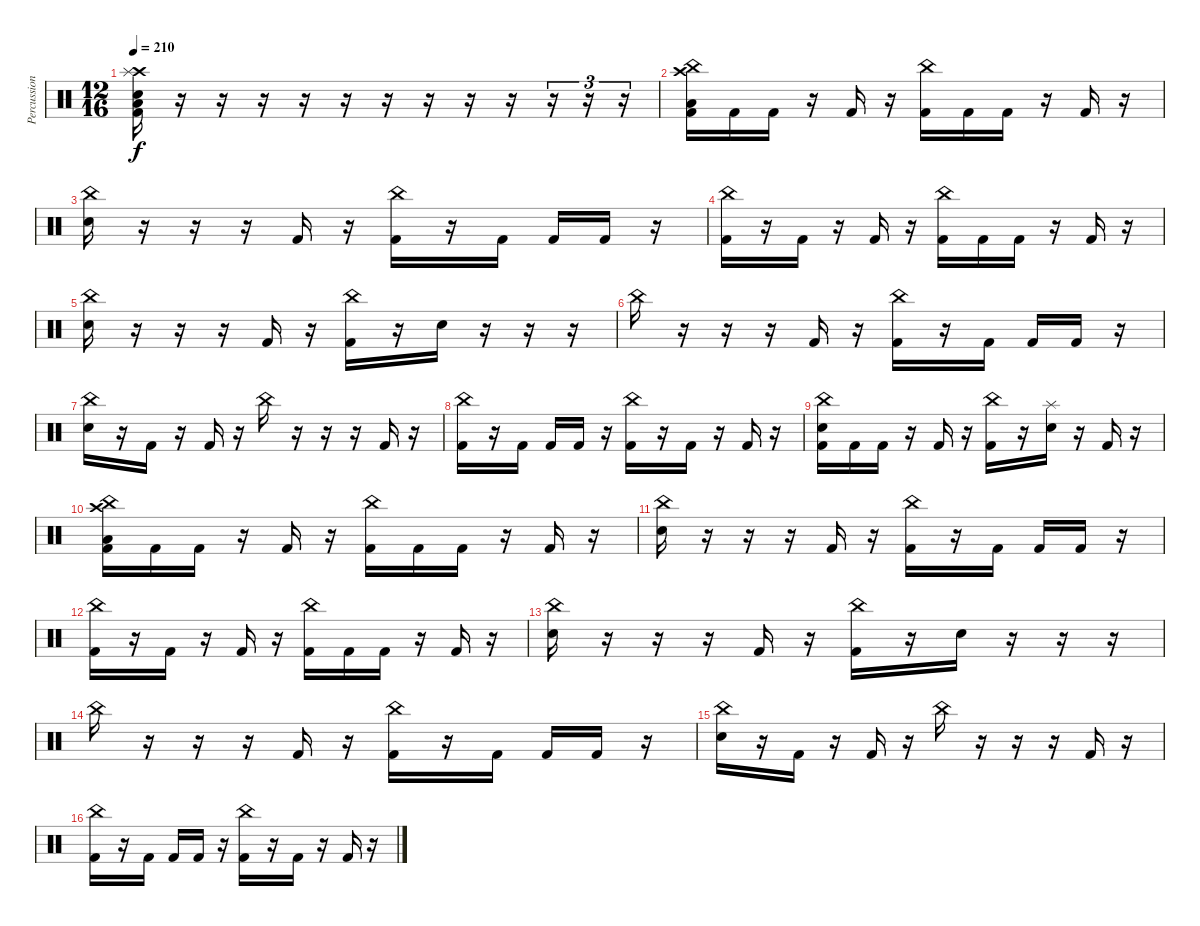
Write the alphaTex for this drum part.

\track ("Percussion" "Percussion") {instrument percussion}
\staff {score}
\articulation defaults
\ts (12 16)
\tempo 210
\clef neutral
\ks c
("Crash high (hit)" "Splash (hit)" "Electric Snare (hit)" "Low Floor Tom (hit)" "Kick (hit) 2").16{dy f} r.16 r.16 r.16 r.16 r.16 r.16 r.16 r.16 r.16 r.16{tu (3 2)} r.16{tu (3 2)} r.16{tu (3 2)} |
("Crash high (hit)" "China (hit)" "Low Floor Tom (hit)" "Kick (hit) 2").16 "Kick (hit) 2".16 "Kick (hit) 2".16 r.16 "Kick (hit) 2".16 r.16 ("China (hit)" "Kick (hit) 2").16 "Kick (hit) 2".16 "Kick (hit) 2".16 r.16 "Kick (hit) 2".16 r.16 |
("China (hit)" "Electric Snare (hit)").16 r.16 r.16 r.16 "Kick (hit) 2".16 r.16 ("China (hit)" "Kick (hit) 2").16 r.16 "Kick (hit) 2".16 "Kick (hit) 2".16 "Kick (hit) 2".16 r.16 |
("China (hit)" "Kick (hit) 2").16 r.16 "Kick (hit) 2".16 r.16 "Kick (hit) 2".16 r.16 ("China (hit)" "Kick (hit) 2").16 "Kick (hit) 2".16 "Kick (hit) 2".16 r.16 "Kick (hit) 2".16 r.16 |
("China (hit)" "Electric Snare (hit)").16 r.16 r.16 r.16 "Kick (hit) 2".16 r.16 ("China (hit)" "Kick (hit) 2").16 r.16 "Electric Snare (hit)".16 r.16 r.16 r.16 |
"China (hit)".16 r.16 r.16 r.16 "Kick (hit) 2".16 r.16 ("China (hit)" "Kick (hit) 2").16 r.16 "Kick (hit) 2".16 "Kick (hit) 2".16 "Kick (hit) 2".16 r.16 |
("China (hit)" "Electric Snare (hit)").16 r.16 "Kick (hit) 2".16 r.16 "Kick (hit) 2".16 r.16 "China (hit)".16 r.16 r.16 r.16 "Kick (hit) 2".16 r.16 |
("China (hit)" "Kick (hit) 2").16 r.16 "Kick (hit) 2".16 "Kick (hit) 2".16 "Kick (hit) 2".16 r.16 ("China (hit)" "Kick (hit) 2").16 r.16 "Kick (hit) 2".16 r.16 "Kick (hit) 2".16 r.16 |
("China (hit)" "Electric Snare (hit)" "Kick (hit) 2").16 "Kick (hit) 2".16 "Kick (hit) 2".16 r.16 "Kick (hit) 2".16 r.16 ("China (hit)" "Kick (hit) 2").16 r.16 ("Splash (hit)" "Electric Snare (hit)").16 r.16 "Kick (hit) 2".16 r.16 |
("Crash high (hit)" "China (hit)" "Low Floor Tom (hit)" "Kick (hit) 2").16 "Kick (hit) 2".16 "Kick (hit) 2".16 r.16 "Kick (hit) 2".16 r.16 ("China (hit)" "Kick (hit) 2").16 "Kick (hit) 2".16 "Kick (hit) 2".16 r.16 "Kick (hit) 2".16 r.16 |
("China (hit)" "Electric Snare (hit)").16 r.16 r.16 r.16 "Kick (hit) 2".16 r.16 ("China (hit)" "Kick (hit) 2").16 r.16 "Kick (hit) 2".16 "Kick (hit) 2".16 "Kick (hit) 2".16 r.16 |
("China (hit)" "Kick (hit) 2").16 r.16 "Kick (hit) 2".16 r.16 "Kick (hit) 2".16 r.16 ("China (hit)" "Kick (hit) 2").16 "Kick (hit) 2".16 "Kick (hit) 2".16 r.16 "Kick (hit) 2".16 r.16 |
("China (hit)" "Electric Snare (hit)").16 r.16 r.16 r.16 "Kick (hit) 2".16 r.16 ("China (hit)" "Kick (hit) 2").16 r.16 "Electric Snare (hit)".16 r.16 r.16 r.16 |
"China (hit)".16 r.16 r.16 r.16 "Kick (hit) 2".16 r.16 ("China (hit)" "Kick (hit) 2").16 r.16 "Kick (hit) 2".16 "Kick (hit) 2".16 "Kick (hit) 2".16 r.16 |
("China (hit)" "Electric Snare (hit)").16 r.16 "Kick (hit) 2".16 r.16 "Kick (hit) 2".16 r.16 "China (hit)".16 r.16 r.16 r.16 "Kick (hit) 2".16 r.16 |
("China (hit)" "Kick (hit) 2").16 r.16 "Kick (hit) 2".16 "Kick (hit) 2".16 "Kick (hit) 2".16 r.16 ("China (hit)" "Kick (hit) 2").16 r.16 "Kick (hit) 2".16 r.16 "Kick (hit) 2".16 r.16
